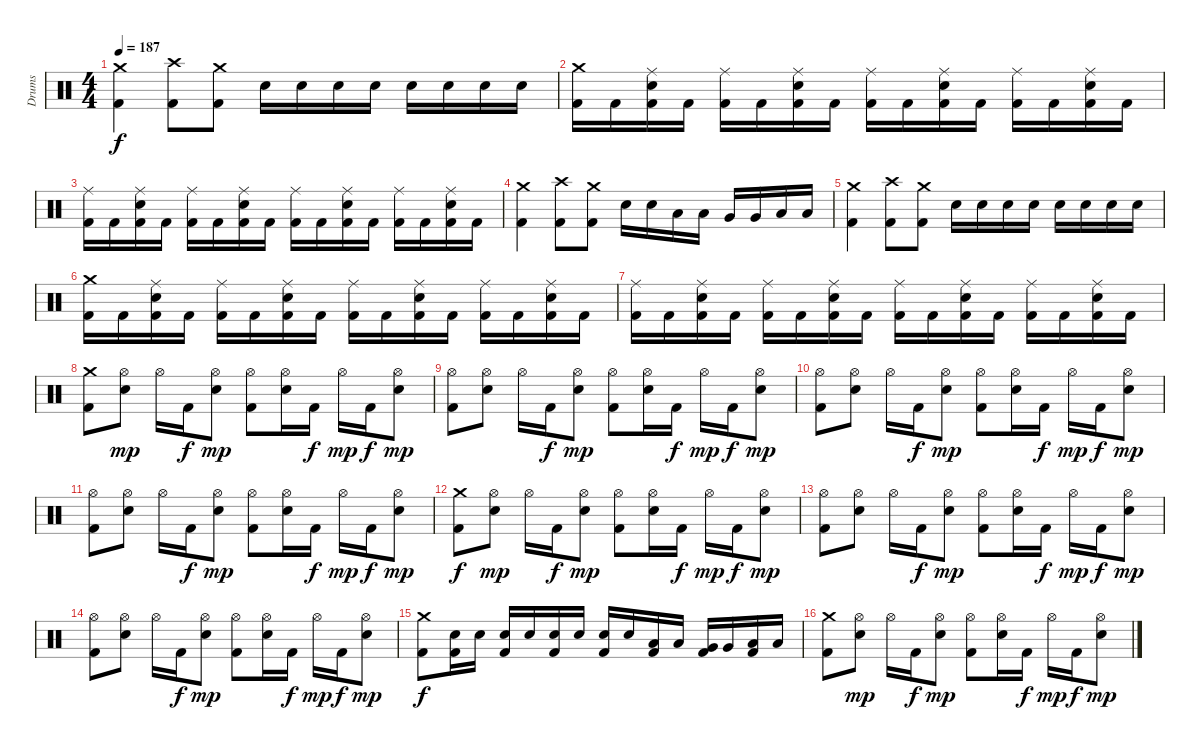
\track ("Drums" "Drums") {instrument percussion}
\staff {score}
\articulation defaults
\ts (4 4)
\tempo 187
\clef neutral
\ks c
("Crash medium (hit)" "Kick (hit) 2").4{dy f} ("Crash high (hit)" "Kick (hit) 2").8 ("Crash medium (hit)" "Kick (hit) 2").8 "Snare (hit) 2".16 "Snare (hit) 2".16 "Snare (hit) 2".16 "Snare (hit) 2".16 "Snare (hit) 2".16 "Snare (hit) 2".16 "Snare (hit) 2".16 "Snare (hit) 2".16 |
("Crash medium (hit)" "Kick (hit) 2").16 "Kick (hit) 2".16 ("Ride (middle)" "Snare (hit) 2" "Kick (hit) 2").16 "Kick (hit) 2".16 ("Ride (middle)" "Kick (hit) 2").16 "Kick (hit) 2".16 ("Ride (middle)" "Snare (hit) 2" "Kick (hit) 2").16 "Kick (hit) 2".16 ("Ride (middle)" "Kick (hit) 2").16 "Kick (hit) 2".16 ("Ride (middle)" "Snare (hit) 2" "Kick (hit) 2").16 "Kick (hit) 2".16 ("Ride (middle)" "Kick (hit) 2").16 "Kick (hit) 2".16 ("Ride (middle)" "Snare (hit) 2" "Kick (hit) 2").16 "Kick (hit) 2".16 |
("Ride (middle)" "Kick (hit) 2").16 "Kick (hit) 2".16 ("Ride (middle)" "Snare (hit) 2" "Kick (hit) 2").16 "Kick (hit) 2".16 ("Ride (middle)" "Kick (hit) 2").16 "Kick (hit) 2".16 ("Ride (middle)" "Snare (hit) 2" "Kick (hit) 2").16 "Kick (hit) 2".16 ("Ride (middle)" "Kick (hit) 2").16 "Kick (hit) 2".16 ("Ride (middle)" "Snare (hit) 2" "Kick (hit) 2").16 "Kick (hit) 2".16 ("Ride (middle)" "Kick (hit) 2").16 "Kick (hit) 2".16 ("Ride (middle)" "Snare (hit) 2" "Kick (hit) 2").16 "Kick (hit) 2".16 |
("Crash medium (hit)" "Kick (hit) 2").4 ("Crash high (hit)" "Kick (hit) 2").8 ("Crash medium (hit)" "Kick (hit) 2").8 "Snare (hit) 2".16 "Snare (hit) 2".16 "Low Tom (hit)".16 "Low Tom (hit)".16 "Very Low Tom (hit)".16 "Very Low Tom (hit)".16 "Low Floor Tom (hit)".16 "Low Floor Tom (hit)".16 |
("Crash medium (hit)" "Kick (hit) 2").4 ("Crash high (hit)" "Kick (hit) 2").8 ("Crash medium (hit)" "Kick (hit) 2").8 "Snare (hit) 2".16 "Snare (hit) 2".16 "Snare (hit) 2".16 "Snare (hit) 2".16 "Snare (hit) 2".16 "Snare (hit) 2".16 "Snare (hit) 2".16 "Snare (hit) 2".16 |
("Crash medium (hit)" "Kick (hit) 2").16 "Kick (hit) 2".16 ("Ride (middle)" "Snare (hit) 2" "Kick (hit) 2").16 "Kick (hit) 2".16 ("Ride (middle)" "Kick (hit) 2").16 "Kick (hit) 2".16 ("Ride (middle)" "Snare (hit) 2" "Kick (hit) 2").16 "Kick (hit) 2".16 ("Ride (middle)" "Kick (hit) 2").16 "Kick (hit) 2".16 ("Ride (middle)" "Snare (hit) 2" "Kick (hit) 2").16 "Kick (hit) 2".16 ("Ride (middle)" "Kick (hit) 2").16 "Kick (hit) 2".16 ("Ride (middle)" "Snare (hit) 2" "Kick (hit) 2").16 "Kick (hit) 2".16 |
("Ride (middle)" "Kick (hit) 2").16 "Kick (hit) 2".16 ("Ride (middle)" "Snare (hit) 2" "Kick (hit) 2").16 "Kick (hit) 2".16 ("Ride (middle)" "Kick (hit) 2").16 "Kick (hit) 2".16 ("Ride (middle)" "Snare (hit) 2" "Kick (hit) 2").16 "Kick (hit) 2".16 ("Ride (middle)" "Kick (hit) 2").16 "Kick (hit) 2".16 ("Ride (middle)" "Snare (hit) 2" "Kick (hit) 2").16 "Kick (hit) 2".16 ("Ride (middle)" "Kick (hit) 2").16 "Kick (hit) 2".16 ("Ride (middle)" "Snare (hit) 2" "Kick (hit) 2").16 "Kick (hit) 2".16 |
("Crash medium (hit)" "Kick (hit) 2").8 ("Hi-Hat (open)" "Snare (hit) 2").8{dy mp} "Hi-Hat (open)".16 "Kick (hit) 2".16{dy f} ("Hi-Hat (open)" "Snare (hit) 2").8{dy mp} ("Hi-Hat (open)" "Kick (hit) 2").8 ("Hi-Hat (open)" "Snare (hit) 2").16 "Kick (hit) 2".16{dy f} "Hi-Hat (open)".16{dy mp} "Kick (hit) 2".16{dy f} ("Hi-Hat (open)" "Snare (hit) 2").8{dy mp} |
("Hi-Hat (open)" "Kick (hit) 2").8 ("Hi-Hat (open)" "Snare (hit) 2").8 "Hi-Hat (open)".16 "Kick (hit) 2".16{dy f} ("Hi-Hat (open)" "Snare (hit) 2").8{dy mp} ("Hi-Hat (open)" "Kick (hit) 2").8 ("Hi-Hat (open)" "Snare (hit) 2").16 "Kick (hit) 2".16{dy f} "Hi-Hat (open)".16{dy mp} "Kick (hit) 2".16{dy f} ("Hi-Hat (open)" "Snare (hit) 2").8{dy mp} |
("Hi-Hat (open)" "Kick (hit) 2").8 ("Hi-Hat (open)" "Snare (hit) 2").8 "Hi-Hat (open)".16 "Kick (hit) 2".16{dy f} ("Hi-Hat (open)" "Snare (hit) 2").8{dy mp} ("Hi-Hat (open)" "Kick (hit) 2").8 ("Hi-Hat (open)" "Snare (hit) 2").16 "Kick (hit) 2".16{dy f} "Hi-Hat (open)".16{dy mp} "Kick (hit) 2".16{dy f} ("Hi-Hat (open)" "Snare (hit) 2").8{dy mp} |
("Hi-Hat (open)" "Kick (hit) 2").8 ("Hi-Hat (open)" "Snare (hit) 2").8 "Hi-Hat (open)".16 "Kick (hit) 2".16{dy f} ("Hi-Hat (open)" "Snare (hit) 2").8{dy mp} ("Hi-Hat (open)" "Kick (hit) 2").8 ("Hi-Hat (open)" "Snare (hit) 2").16 "Kick (hit) 2".16{dy f} "Hi-Hat (open)".16{dy mp} "Kick (hit) 2".16{dy f} ("Hi-Hat (open)" "Snare (hit) 2").8{dy mp} |
("Crash medium (hit)" "Kick (hit) 2").8{dy f} ("Hi-Hat (open)" "Snare (hit) 2").8{dy mp} "Hi-Hat (open)".16 "Kick (hit) 2".16{dy f} ("Hi-Hat (open)" "Snare (hit) 2").8{dy mp} ("Hi-Hat (open)" "Kick (hit) 2").8 ("Hi-Hat (open)" "Snare (hit) 2").16 "Kick (hit) 2".16{dy f} "Hi-Hat (open)".16{dy mp} "Kick (hit) 2".16{dy f} ("Hi-Hat (open)" "Snare (hit) 2").8{dy mp} |
("Hi-Hat (open)" "Kick (hit) 2").8 ("Hi-Hat (open)" "Snare (hit) 2").8 "Hi-Hat (open)".16 "Kick (hit) 2".16{dy f} ("Hi-Hat (open)" "Snare (hit) 2").8{dy mp} ("Hi-Hat (open)" "Kick (hit) 2").8 ("Hi-Hat (open)" "Snare (hit) 2").16 "Kick (hit) 2".16{dy f} "Hi-Hat (open)".16{dy mp} "Kick (hit) 2".16{dy f} ("Hi-Hat (open)" "Snare (hit) 2").8{dy mp} |
("Hi-Hat (open)" "Kick (hit) 2").8 ("Hi-Hat (open)" "Snare (hit) 2").8 "Hi-Hat (open)".16 "Kick (hit) 2".16{dy f} ("Hi-Hat (open)" "Snare (hit) 2").8{dy mp} ("Hi-Hat (open)" "Kick (hit) 2").8 ("Hi-Hat (open)" "Snare (hit) 2").16 "Kick (hit) 2".16{dy f} "Hi-Hat (open)".16{dy mp} "Kick (hit) 2".16{dy f} ("Hi-Hat (open)" "Snare (hit) 2").8{dy mp} |
("Crash medium (hit)" "Kick (hit) 2").8{dy f} ("Snare (hit) 2" "Kick (hit) 2").16 "Snare (hit) 2".16 ("Snare (hit) 2" "Kick (hit) 2").16 "Snare (hit) 2".16 ("Snare (hit) 2" "Kick (hit) 2").16 "Snare (hit) 2".16 ("Snare (hit) 2" "Kick (hit) 2").16 "Snare (hit) 2".16 ("Low Tom (hit)" "Kick (hit) 2").16 "Low Tom (hit)".16 ("Very Low Tom (hit)" "Kick (hit) 2").16 "Very Low Tom (hit)".16 ("Low Floor Tom (hit)" "Kick (hit) 2").16 "Low Floor Tom (hit)".16 |
("Crash medium (hit)" "Kick (hit) 2").8 ("Hi-Hat (open)" "Snare (hit) 2").8{dy mp} "Hi-Hat (open)".16 "Kick (hit) 2".16{dy f} ("Hi-Hat (open)" "Snare (hit) 2").8{dy mp} ("Hi-Hat (open)" "Kick (hit) 2").8 ("Hi-Hat (open)" "Snare (hit) 2").16 "Kick (hit) 2".16{dy f} "Hi-Hat (open)".16{dy mp} "Kick (hit) 2".16{dy f} ("Hi-Hat (open)" "Snare (hit) 2").8{dy mp}
